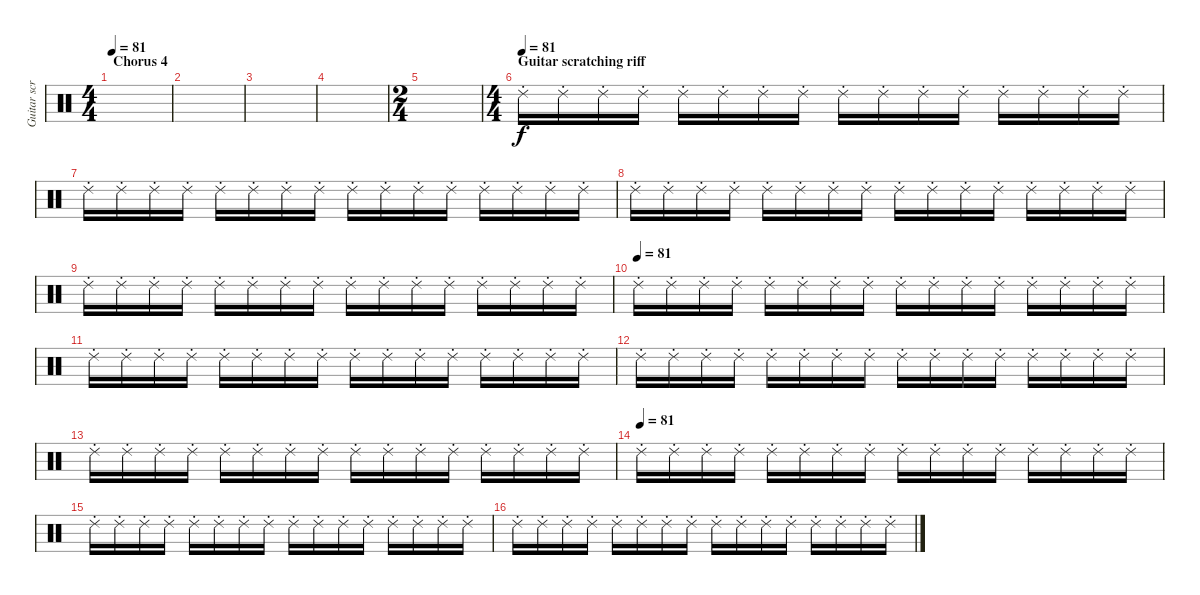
\track ("Guitar scratching" "Guitar scr") {instrument percussion}
\staff {score}
\articulation defaults
\ts (4 4)
\section ("" "Chorus 4")
\tempo 81
\clef neutral
\ks c
|
|
|
|
\ts (2 4)
|
\ts (4 4)
\section ("" "Guitar scratching riff")
\tempo (81)
"Ride (choke) 2".16 "Ride (choke) 2".16 "Ride (choke) 2".16 "Ride (choke) 2".16 "Ride (choke) 2".16 "Ride (choke) 2".16 "Ride (choke) 2".16 "Ride (choke) 2".16 "Ride (choke) 2".16 "Ride (choke) 2".16 "Ride (choke) 2".16 "Ride (choke) 2".16 "Ride (choke) 2".16 "Ride (choke) 2".16 "Ride (choke) 2".16 "Ride (choke) 2".16 |
"Ride (choke) 2".16 "Ride (choke) 2".16 "Ride (choke) 2".16 "Ride (choke) 2".16 "Ride (choke) 2".16 "Ride (choke) 2".16 "Ride (choke) 2".16 "Ride (choke) 2".16 "Ride (choke) 2".16 "Ride (choke) 2".16 "Ride (choke) 2".16 "Ride (choke) 2".16 "Ride (choke) 2".16 "Ride (choke) 2".16 "Ride (choke) 2".16 "Ride (choke) 2".16 |
"Ride (choke) 2".16 "Ride (choke) 2".16 "Ride (choke) 2".16 "Ride (choke) 2".16 "Ride (choke) 2".16 "Ride (choke) 2".16 "Ride (choke) 2".16 "Ride (choke) 2".16 "Ride (choke) 2".16 "Ride (choke) 2".16 "Ride (choke) 2".16 "Ride (choke) 2".16 "Ride (choke) 2".16 "Ride (choke) 2".16 "Ride (choke) 2".16 "Ride (choke) 2".16 |
"Ride (choke) 2".16 "Ride (choke) 2".16 "Ride (choke) 2".16 "Ride (choke) 2".16 "Ride (choke) 2".16 "Ride (choke) 2".16 "Ride (choke) 2".16 "Ride (choke) 2".16 "Ride (choke) 2".16 "Ride (choke) 2".16 "Ride (choke) 2".16 "Ride (choke) 2".16 "Ride (choke) 2".16 "Ride (choke) 2".16 "Ride (choke) 2".16 "Ride (choke) 2".16 |
\tempo (81)
"Ride (choke) 2".16 "Ride (choke) 2".16 "Ride (choke) 2".16 "Ride (choke) 2".16 "Ride (choke) 2".16 "Ride (choke) 2".16 "Ride (choke) 2".16 "Ride (choke) 2".16 "Ride (choke) 2".16 "Ride (choke) 2".16 "Ride (choke) 2".16 "Ride (choke) 2".16 "Ride (choke) 2".16 "Ride (choke) 2".16 "Ride (choke) 2".16 "Ride (choke) 2".16 |
"Ride (choke) 2".16 "Ride (choke) 2".16 "Ride (choke) 2".16 "Ride (choke) 2".16 "Ride (choke) 2".16 "Ride (choke) 2".16 "Ride (choke) 2".16 "Ride (choke) 2".16 "Ride (choke) 2".16 "Ride (choke) 2".16 "Ride (choke) 2".16 "Ride (choke) 2".16 "Ride (choke) 2".16 "Ride (choke) 2".16 "Ride (choke) 2".16 "Ride (choke) 2".16 |
"Ride (choke) 2".16 "Ride (choke) 2".16 "Ride (choke) 2".16 "Ride (choke) 2".16 "Ride (choke) 2".16 "Ride (choke) 2".16 "Ride (choke) 2".16 "Ride (choke) 2".16 "Ride (choke) 2".16 "Ride (choke) 2".16 "Ride (choke) 2".16 "Ride (choke) 2".16 "Ride (choke) 2".16 "Ride (choke) 2".16 "Ride (choke) 2".16 "Ride (choke) 2".16 |
"Ride (choke) 2".16 "Ride (choke) 2".16 "Ride (choke) 2".16 "Ride (choke) 2".16 "Ride (choke) 2".16 "Ride (choke) 2".16 "Ride (choke) 2".16 "Ride (choke) 2".16 "Ride (choke) 2".16 "Ride (choke) 2".16 "Ride (choke) 2".16 "Ride (choke) 2".16 "Ride (choke) 2".16 "Ride (choke) 2".16 "Ride (choke) 2".16 "Ride (choke) 2".16 |
\tempo (81)
"Ride (choke) 2".16 "Ride (choke) 2".16 "Ride (choke) 2".16 "Ride (choke) 2".16 "Ride (choke) 2".16 "Ride (choke) 2".16 "Ride (choke) 2".16 "Ride (choke) 2".16 "Ride (choke) 2".16 "Ride (choke) 2".16 "Ride (choke) 2".16 "Ride (choke) 2".16 "Ride (choke) 2".16 "Ride (choke) 2".16 "Ride (choke) 2".16 "Ride (choke) 2".16 |
"Ride (choke) 2".16 "Ride (choke) 2".16 "Ride (choke) 2".16 "Ride (choke) 2".16 "Ride (choke) 2".16 "Ride (choke) 2".16 "Ride (choke) 2".16 "Ride (choke) 2".16 "Ride (choke) 2".16 "Ride (choke) 2".16 "Ride (choke) 2".16 "Ride (choke) 2".16 "Ride (choke) 2".16 "Ride (choke) 2".16 "Ride (choke) 2".16 "Ride (choke) 2".16 |
"Ride (choke) 2".16 "Ride (choke) 2".16 "Ride (choke) 2".16 "Ride (choke) 2".16 "Ride (choke) 2".16 "Ride (choke) 2".16 "Ride (choke) 2".16 "Ride (choke) 2".16 "Ride (choke) 2".16 "Ride (choke) 2".16 "Ride (choke) 2".16 "Ride (choke) 2".16 "Ride (choke) 2".16 "Ride (choke) 2".16 "Ride (choke) 2".16 "Ride (choke) 2".16
